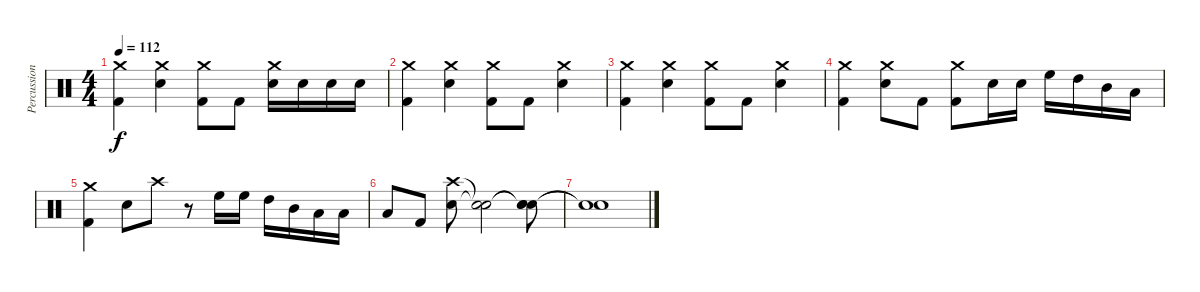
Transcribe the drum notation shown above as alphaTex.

\track ("Percussion" "Percussion") {instrument percussion}
\staff {score}
\articulation defaults
\ts (4 4)
\tempo 112
\clef neutral
\ks c
("Crash medium (hit)" "Kick (hit) 2").4{dy f} ("Crash medium (hit)" "Snare (hit) 2").4 ("Crash medium (hit)" "Kick (hit) 2").8 "Kick (hit) 2".8 ("Crash medium (hit)" "Snare (hit) 2").16 "Snare (hit) 2".16 "Snare (hit) 2".16 "Snare (hit) 2".16 |
("Crash medium (hit)" "Kick (hit) 2").4 ("Crash medium (hit)" "Snare (hit) 2").4 ("Crash medium (hit)" "Kick (hit) 2").8 "Kick (hit) 2".8 ("Crash medium (hit)" "Snare (hit) 2").4 |
("Crash medium (hit)" "Kick (hit) 2").4 ("Crash medium (hit)" "Snare (hit) 2").4 ("Crash medium (hit)" "Kick (hit) 2").8 "Kick (hit) 2".8 ("Crash medium (hit)" "Snare (hit) 2").4 |
("Crash medium (hit)" "Kick (hit) 2").4 ("Crash medium (hit)" "Snare (hit) 2").8 "Kick (hit) 2".8 ("Crash medium (hit)" "Kick (hit) 2").8 "Snare (hit) 2".16 "Snare (hit) 2".16 "High Floor Tom (hit)".16 "High Tom (hit)".16 "Mid Tom (hit)".16 "Low Tom (hit)".16 |
("Crash medium (hit)" "Kick (hit) 2").4 "Snare (hit) 2".8 "Crash high (hit)".8 r.8 "High Floor Tom (hit)".16 "High Floor Tom (hit)".16 "High Tom (hit)".16 "Mid Tom (hit)".16 "Low Tom (hit)".16 "Low Tom (hit)".16 |
"Low Tom (hit)".8 "Kick (hit) 2".8 ("Crash high (hit)" "Snare (hit) 2").8 ("Snare (hit)"{t} "Snare (hit)"{t}).2 ("Snare (hit)"{t} "Snare (hit)"{t} "Snare (hit)").8 |
("Snare (hit)"{t} "Snare (hit)"{t}).1
